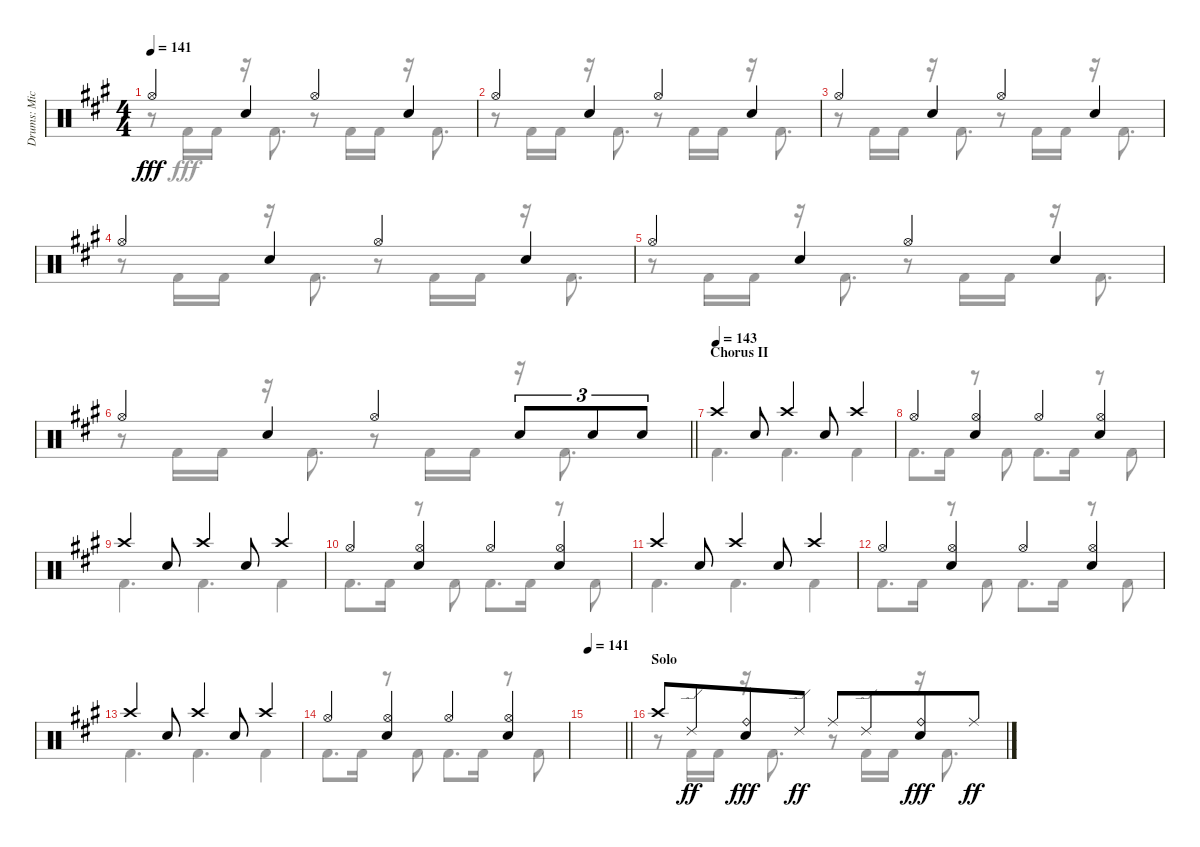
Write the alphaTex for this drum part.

\track ("Drums: Mick" "Drums: Mic") {instrument percussion}
\staff {score}
\articulation defaults
\voice
\ts (4 4)
\tempo 141
\clef neutral
\ks a "Hi-Hat (open)".4{dy fff} "Snare (hit) 2".4 "Hi-Hat (open)".4 "Snare (hit) 2".4
|
"Hi-Hat (open)".4 "Snare (hit) 2".4 "Hi-Hat (open)".4 "Snare (hit) 2".4 |
"Hi-Hat (open)".4 "Snare (hit) 2".4 "Hi-Hat (open)".4 "Snare (hit) 2".4 |
"Hi-Hat (open)".4 "Snare (hit) 2".4 "Hi-Hat (open)".4 "Snare (hit) 2".4 |
"Hi-Hat (open)".4 "Snare (hit) 2".4 "Hi-Hat (open)".4 "Snare (hit) 2".4 |
\barLineRight lightlight "Hi-Hat (open)".4 "Snare (hit) 2".4 "Hi-Hat (open)".4 "Snare (hit) 2".8{tu (3 2)} "Snare (hit) 2".8{tu (3 2)} "Snare (hit) 2".8{tu (3 2)}
|
\section ("" "Chorus II")
\tempo (143)
"Crash high (hit)".4 "Snare (hit) 2".8 "Crash high (hit)".4 "Snare (hit) 2".8 "Crash high (hit)".4 |
"Hi-Hat (open)".4 ("Hi-Hat (open)" "Snare (hit) 2").4 "Hi-Hat (open)".4 ("Hi-Hat (open)" "Snare (hit) 2").4 |
"Crash high (hit)".4 "Snare (hit) 2".8 "Crash high (hit)".4 "Snare (hit) 2".8 "Crash high (hit)".4 |
"Hi-Hat (open)".4 ("Hi-Hat (open)" "Snare (hit) 2").4 "Hi-Hat (open)".4 ("Hi-Hat (open)" "Snare (hit) 2").4 |
"Crash high (hit)".4 "Snare (hit) 2".8 "Crash high (hit)".4 "Snare (hit) 2".8 "Crash high (hit)".4 |
"Hi-Hat (open)".4 ("Hi-Hat (open)" "Snare (hit) 2").4 "Hi-Hat (open)".4 ("Hi-Hat (open)" "Snare (hit) 2").4 |
"Crash high (hit)".4 "Snare (hit) 2".8 "Crash high (hit)".4 "Snare (hit) 2".8 "Crash high (hit)".4 |
"Hi-Hat (open)".4 ("Hi-Hat (open)" "Snare (hit) 2").4 "Hi-Hat (open)".4 ("Hi-Hat (open)" "Snare (hit) 2").4 |
\tempo 141
\barLineRight lightlight
|
\section ("" "Solo")
"Crash high (hit)".8 "Ride (edge) 2".8{dy ff beam merge} ("Ride (bell)" "Snare (hit) 2").8{dy fff} "Ride (edge) 2".8{dy ff} "Ride (middle)".8{beam merge} "Ride (edge) 2".8{beam merge} ("Ride (bell)" "Snare (hit) 2").8{dy fff} "Ride (middle)".8{dy ff}
\voice
\clef neutral
\ottava regular
\simile none
\ks a
r.8{dy fff} "Kick (hit) 2".16 "Kick (hit) 2".16 r.16 "Kick (hit) 2".8{d} r.8 "Kick (hit) 2".16 "Kick (hit) 2".16 r.16 "Kick (hit) 2".8{d} |
r.8 "Kick (hit) 2".16 "Kick (hit) 2".16 r.16 "Kick (hit) 2".8{d} r.8 "Kick (hit) 2".16 "Kick (hit) 2".16 r.16 "Kick (hit) 2".8{d} |
r.8 "Kick (hit) 2".16 "Kick (hit) 2".16 r.16 "Kick (hit) 2".8{d} r.8 "Kick (hit) 2".16 "Kick (hit) 2".16 r.16 "Kick (hit) 2".8{d} |
r.8 "Kick (hit) 2".16 "Kick (hit) 2".16 r.16 "Kick (hit) 2".8{d} r.8 "Kick (hit) 2".16 "Kick (hit) 2".16 r.16 "Kick (hit) 2".8{d} |
r.8 "Kick (hit) 2".16 "Kick (hit) 2".16 r.16 "Kick (hit) 2".8{d} r.8 "Kick (hit) 2".16 "Kick (hit) 2".16 r.16 "Kick (hit) 2".8{d} |
\barLineRight lightlight
r.8 "Kick (hit) 2".16 "Kick (hit) 2".16 r.16 "Kick (hit) 2".8{d} r.8 "Kick (hit) 2".16 "Kick (hit) 2".16 r.16 "Kick (hit) 2".8{d} |
"Kick (hit) 2".4{d} "Kick (hit) 2".4{d} "Kick (hit) 2".4 |
"Kick (hit) 2".8{d} "Kick (hit) 2".16 r.8 "Kick (hit) 2".8 "Kick (hit) 2".8{d} "Kick (hit) 2".16 r.8 "Kick (hit) 2".8 |
"Kick (hit) 2".4{d} "Kick (hit) 2".4{d} "Kick (hit) 2".4 |
"Kick (hit) 2".8{d} "Kick (hit) 2".16 r.8 "Kick (hit) 2".8 "Kick (hit) 2".8{d} "Kick (hit) 2".16 r.8 "Kick (hit) 2".8 |
"Kick (hit) 2".4{d} "Kick (hit) 2".4{d} "Kick (hit) 2".4 |
"Kick (hit) 2".8{d} "Kick (hit) 2".16 r.8 "Kick (hit) 2".8 "Kick (hit) 2".8{d} "Kick (hit) 2".16 r.8 "Kick (hit) 2".8 |
"Kick (hit) 2".4{d} "Kick (hit) 2".4{d} "Kick (hit) 2".4 |
"Kick (hit) 2".8{d} "Kick (hit) 2".16 r.8 "Kick (hit) 2".8 "Kick (hit) 2".8{d} "Kick (hit) 2".16 r.8 "Kick (hit) 2".8 |
\barLineRight lightlight
|
r.8 "Kick (hit) 2".16 "Kick (hit) 2".16 r.16 "Kick (hit) 2".8{d} r.8 "Kick (hit) 2".16 "Kick (hit) 2".16 r.16 "Kick (hit) 2".8{d}
